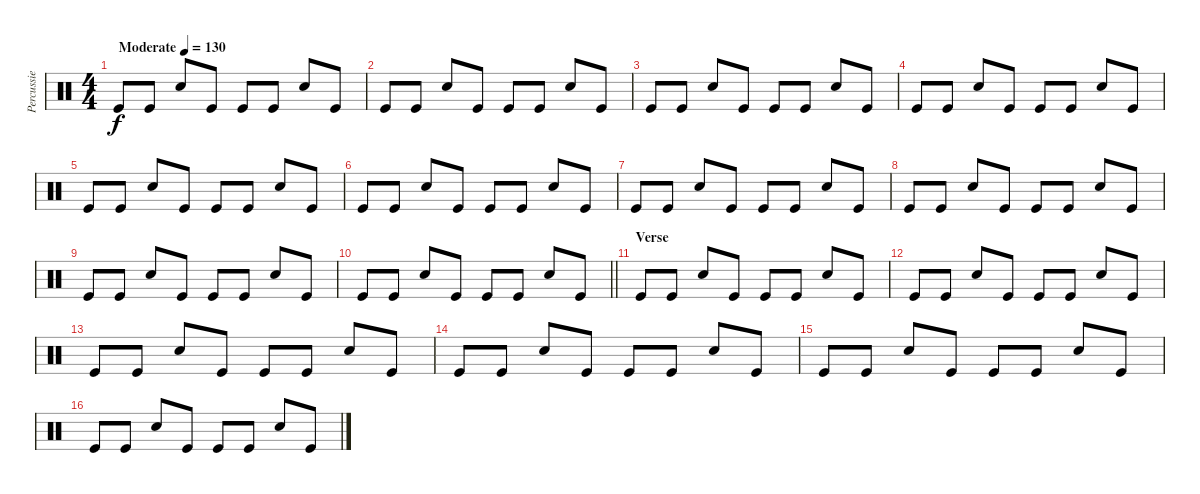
\track ("Percussie" "Percussie") {instrument percussion}
\staff {score}
\articulation defaults
\ts (4 4)
\tempo (130 "Moderate")
\clef neutral
\ks c "Kick (hit)".8{dy f} "Kick (hit)".8 "Snare (hit) 2".8 "Kick (hit)".8 "Kick (hit)".8 "Kick (hit)".8 "Snare (hit) 2".8 "Kick (hit)".8
|
"Kick (hit)".8 "Kick (hit)".8 "Snare (hit) 2".8 "Kick (hit)".8 "Kick (hit)".8 "Kick (hit)".8 "Snare (hit) 2".8 "Kick (hit)".8 |
"Kick (hit)".8 "Kick (hit)".8 "Snare (hit) 2".8 "Kick (hit)".8 "Kick (hit)".8 "Kick (hit)".8 "Snare (hit) 2".8 "Kick (hit)".8 |
"Kick (hit)".8 "Kick (hit)".8 "Snare (hit) 2".8 "Kick (hit)".8 "Kick (hit)".8 "Kick (hit)".8 "Snare (hit) 2".8 "Kick (hit)".8 |
"Kick (hit)".8 "Kick (hit)".8 "Snare (hit) 2".8 "Kick (hit)".8 "Kick (hit)".8 "Kick (hit)".8 "Snare (hit) 2".8 "Kick (hit)".8 |
"Kick (hit)".8 "Kick (hit)".8 "Snare (hit) 2".8 "Kick (hit)".8 "Kick (hit)".8 "Kick (hit)".8 "Snare (hit) 2".8 "Kick (hit)".8 |
"Kick (hit)".8 "Kick (hit)".8 "Snare (hit) 2".8 "Kick (hit)".8 "Kick (hit)".8 "Kick (hit)".8 "Snare (hit) 2".8 "Kick (hit)".8 |
"Kick (hit)".8 "Kick (hit)".8 "Snare (hit) 2".8 "Kick (hit)".8 "Kick (hit)".8 "Kick (hit)".8 "Snare (hit) 2".8 "Kick (hit)".8 |
"Kick (hit)".8 "Kick (hit)".8 "Snare (hit) 2".8 "Kick (hit)".8 "Kick (hit)".8 "Kick (hit)".8 "Snare (hit) 2".8 "Kick (hit)".8 |
\barLineRight lightlight "Kick (hit)".8 "Kick (hit)".8 "Snare (hit) 2".8 "Kick (hit)".8 "Kick (hit)".8 "Kick (hit)".8 "Snare (hit) 2".8 "Kick (hit)".8
|
\section ("" "Verse")
"Kick (hit)".8 "Kick (hit)".8 "Snare (hit) 2".8 "Kick (hit)".8 "Kick (hit)".8 "Kick (hit)".8 "Snare (hit) 2".8 "Kick (hit)".8 |
"Kick (hit)".8 "Kick (hit)".8 "Snare (hit) 2".8 "Kick (hit)".8 "Kick (hit)".8 "Kick (hit)".8 "Snare (hit) 2".8 "Kick (hit)".8 |
"Kick (hit)".8 "Kick (hit)".8 "Snare (hit) 2".8 "Kick (hit)".8 "Kick (hit)".8 "Kick (hit)".8 "Snare (hit) 2".8 "Kick (hit)".8 |
"Kick (hit)".8 "Kick (hit)".8 "Snare (hit) 2".8 "Kick (hit)".8 "Kick (hit)".8 "Kick (hit)".8 "Snare (hit) 2".8 "Kick (hit)".8 |
"Kick (hit)".8 "Kick (hit)".8 "Snare (hit) 2".8 "Kick (hit)".8 "Kick (hit)".8 "Kick (hit)".8 "Snare (hit) 2".8 "Kick (hit)".8 |
"Kick (hit)".8 "Kick (hit)".8 "Snare (hit) 2".8 "Kick (hit)".8 "Kick (hit)".8 "Kick (hit)".8 "Snare (hit) 2".8 "Kick (hit)".8
